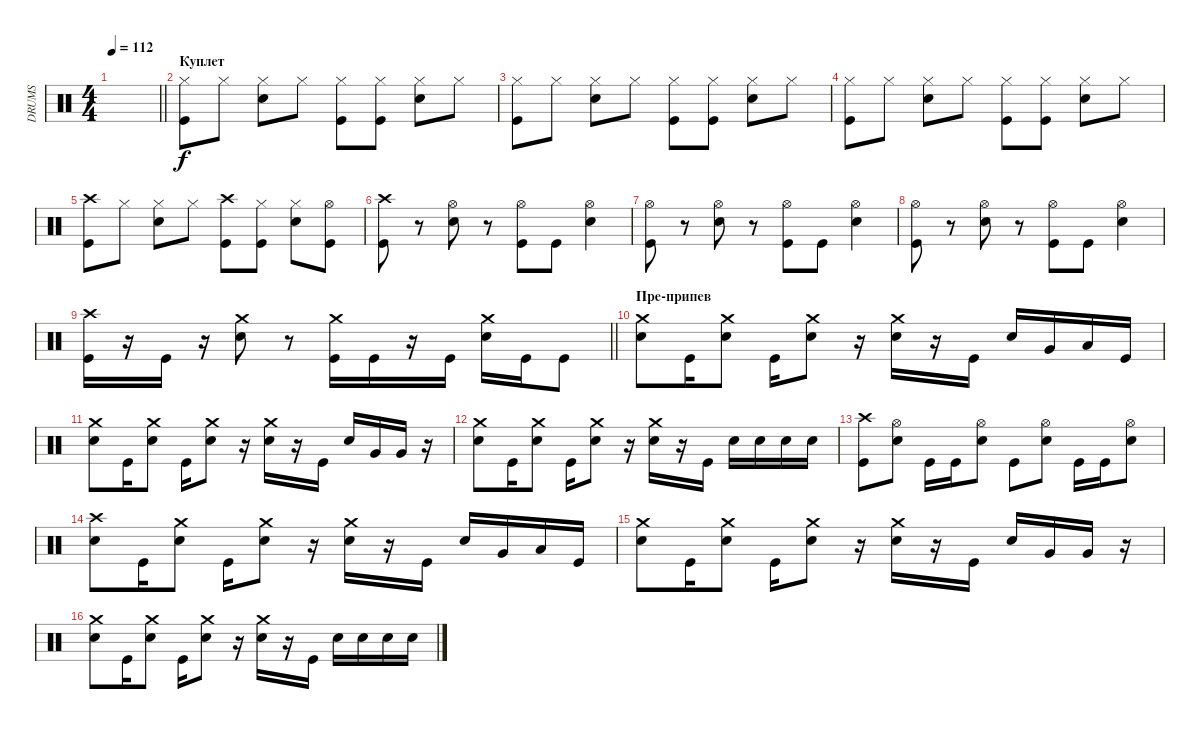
\track ("DRUMS" "DRUMS") {instrument percussion}
\staff {score}
\articulation defaults
\ts (4 4)
\tempo 112
\clef neutral
\barLineRight lightlight
\ks c
|
\section ("" "Куплет")
("Hi-Hat (closed)" "Kick (hit)").8 "Hi-Hat (closed)".8 ("Hi-Hat (closed)" "Snare (hit) 2").8 "Hi-Hat (closed)".8 ("Hi-Hat (closed)" "Kick (hit)").8 ("Hi-Hat (closed)" "Kick (hit)").8 ("Hi-Hat (closed)" "Snare (hit) 2").8 "Hi-Hat (closed)".8 |
("Hi-Hat (closed)" "Kick (hit)").8 "Hi-Hat (closed)".8 ("Hi-Hat (closed)" "Snare (hit) 2").8 "Hi-Hat (closed)".8 ("Hi-Hat (closed)" "Kick (hit)").8 ("Hi-Hat (closed)" "Kick (hit)").8 ("Hi-Hat (closed)" "Snare (hit) 2").8 "Hi-Hat (closed)".8 |
("Hi-Hat (closed)" "Kick (hit)").8 "Hi-Hat (closed)".8 ("Hi-Hat (closed)" "Snare (hit) 2").8 "Hi-Hat (closed)".8 ("Hi-Hat (closed)" "Kick (hit)").8 ("Hi-Hat (closed)" "Kick (hit)").8 ("Hi-Hat (closed)" "Snare (hit) 2").8 "Hi-Hat (closed)".8 |
("Crash high (hit)" "Kick (hit)").8 "Hi-Hat (closed)".8 ("Hi-Hat (closed)" "Snare (hit) 2").8 "Hi-Hat (closed)".8 ("Crash high (hit)" "Kick (hit)").8 ("Hi-Hat (closed)" "Kick (hit)").8 ("Hi-Hat (closed)" "Snare (hit) 2").8 ("Hi-Hat (open)" "Kick (hit)").8 |
("Crash high (hit)" "Kick (hit)").8 r.8 ("Hi-Hat (open)" "Snare (hit) 2").8 r.8 ("Hi-Hat (open)" "Kick (hit)").8 "Kick (hit)".8 ("Hi-Hat (open)" "Snare (hit) 2").4 |
("Hi-Hat (open)" "Kick (hit)").8 r.8 ("Hi-Hat (open)" "Snare (hit) 2").8 r.8 ("Hi-Hat (open)" "Kick (hit)").8 "Kick (hit)".8 ("Hi-Hat (open)" "Snare (hit) 2").4 |
("Hi-Hat (open)" "Kick (hit)").8 r.8 ("Hi-Hat (open)" "Snare (hit) 2").8 r.8 ("Hi-Hat (open)" "Kick (hit)").8 "Kick (hit)".8 ("Hi-Hat (open)" "Snare (hit) 2").4 |
\barLineRight lightlight
("Crash high (hit)" "Kick (hit)").16 r.16 "Kick (hit)".16 r.16 ("Crash medium (hit)" "Snare (hit) 2").8 r.8 ("Crash medium (hit)" "Kick (hit)").16 "Kick (hit)".16 r.16 "Kick (hit)".16 ("Crash medium (hit)" "Snare (hit) 2").16 "Kick (hit)".16 "Kick (hit)".8 |
\section ("" "Пре-припев")
("Crash medium (hit)" "Snare (hit) 2").8 "Kick (hit)".16 ("Crash medium (hit)" "Snare (hit) 2").8 "Kick (hit)".16 ("Crash medium (hit)" "Snare (hit) 2").8 r.16 ("Crash medium (hit)" "Snare (hit) 2").16 r.16 "Kick (hit)".16 "Snare (hit) 2".16 "Very Low Tom (hit)".16 "Low Floor Tom (hit)".16 "Kick (hit)".16 |
("Crash medium (hit)" "Snare (hit) 2").8 "Kick (hit)".16 ("Crash medium (hit)" "Snare (hit) 2").8 "Kick (hit)".16 ("Crash medium (hit)" "Snare (hit) 2").8 r.16 ("Crash medium (hit)" "Snare (hit) 2").16 r.16 "Kick (hit)".16 "Snare (hit) 2".16 "Very Low Tom (hit)".16 "Very Low Tom (hit)".16 r.16 |
("Crash medium (hit)" "Snare (hit) 2").8 "Kick (hit)".16 ("Crash medium (hit)" "Snare (hit) 2").8 "Kick (hit)".16 ("Crash medium (hit)" "Snare (hit) 2").8 r.16 ("Crash medium (hit)" "Snare (hit) 2").16 r.16 "Kick (hit)".16 "Snare (hit) 2".16 "Snare (hit) 2".16 "Snare (hit) 2".16 "Snare (hit) 2".16 |
("Crash high (hit)" "Kick (hit)").8 ("Hi-Hat (open)" "Snare (hit) 2").8 "Kick (hit)".16 "Kick (hit)".16 ("Hi-Hat (open)" "Snare (hit) 2").8 "Kick (hit)".8 ("Hi-Hat (open)" "Snare (hit) 2").8 "Kick (hit)".16 "Kick (hit)".16 ("Hi-Hat (open)" "Snare (hit) 2").8 |
("Crash high (hit)" "Snare (hit) 2").8 "Kick (hit)".16 ("Crash medium (hit)" "Snare (hit) 2").8 "Kick (hit)".16 ("Crash medium (hit)" "Snare (hit) 2").8 r.16 ("Crash medium (hit)" "Snare (hit) 2").16 r.16 "Kick (hit)".16 "Snare (hit) 2".16 "Very Low Tom (hit)".16 "Low Floor Tom (hit)".16 "Kick (hit)".16 |
("Crash medium (hit)" "Snare (hit) 2").8 "Kick (hit)".16 ("Crash medium (hit)" "Snare (hit) 2").8 "Kick (hit)".16 ("Crash medium (hit)" "Snare (hit) 2").8 r.16 ("Crash medium (hit)" "Snare (hit) 2").16 r.16 "Kick (hit)".16 "Snare (hit) 2".16 "Very Low Tom (hit)".16 "Very Low Tom (hit)".16 r.16 |
("Crash medium (hit)" "Snare (hit) 2").8 "Kick (hit)".16 ("Crash medium (hit)" "Snare (hit) 2").8 "Kick (hit)".16 ("Crash medium (hit)" "Snare (hit) 2").8 r.16 ("Crash medium (hit)" "Snare (hit) 2").16 r.16 "Kick (hit)".16 "Snare (hit) 2".16 "Snare (hit) 2".16 "Snare (hit) 2".16 "Snare (hit) 2".16
